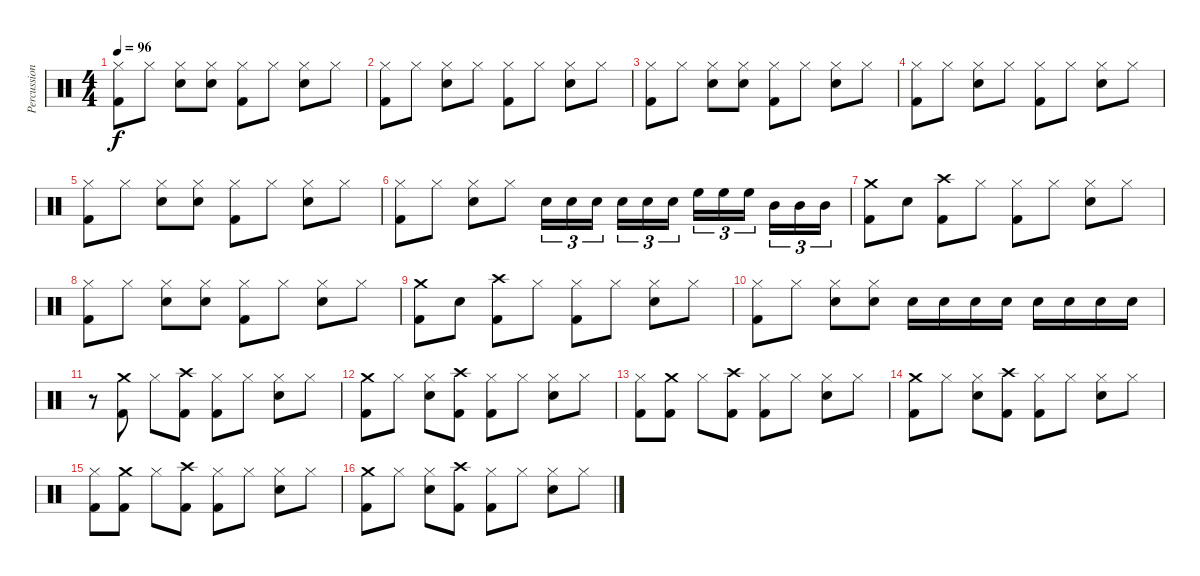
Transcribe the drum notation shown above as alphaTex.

\track ("Percussion" "Percussion") {instrument percussion}
\staff {score}
\articulation defaults
\ts (4 4)
\tempo 96
\clef neutral
\ks c
("Hi-Hat (closed)" "Kick (hit) 2").8{dy f} "Hi-Hat (closed)".8 ("Hi-Hat (closed)" "Snare (hit) 2").8 ("Hi-Hat (closed)" "Snare (hit) 2").8 ("Hi-Hat (closed)" "Kick (hit) 2").8 "Hi-Hat (closed)".8 ("Hi-Hat (closed)" "Snare (hit) 2").8 "Hi-Hat (closed)".8 |
("Hi-Hat (closed)" "Kick (hit) 2").8 "Hi-Hat (closed)".8 ("Hi-Hat (closed)" "Snare (hit) 2").8 "Hi-Hat (closed)".8 ("Hi-Hat (closed)" "Kick (hit) 2").8 "Hi-Hat (closed)".8 ("Hi-Hat (closed)" "Snare (hit) 2").8 "Hi-Hat (closed)".8 |
("Hi-Hat (closed)" "Kick (hit) 2").8 "Hi-Hat (closed)".8 ("Hi-Hat (closed)" "Snare (hit) 2").8 ("Hi-Hat (closed)" "Snare (hit) 2").8 ("Hi-Hat (closed)" "Kick (hit) 2").8 "Hi-Hat (closed)".8 ("Hi-Hat (closed)" "Snare (hit) 2").8 "Hi-Hat (closed)".8 |
("Hi-Hat (closed)" "Kick (hit) 2").8 "Hi-Hat (closed)".8 ("Hi-Hat (closed)" "Snare (hit) 2").8 "Hi-Hat (closed)".8 ("Hi-Hat (closed)" "Kick (hit) 2").8 "Hi-Hat (closed)".8 ("Hi-Hat (closed)" "Snare (hit) 2").8 "Hi-Hat (closed)".8 |
("Hi-Hat (closed)" "Kick (hit) 2").8 "Hi-Hat (closed)".8 ("Hi-Hat (closed)" "Snare (hit) 2").8 ("Hi-Hat (closed)" "Snare (hit) 2").8 ("Hi-Hat (closed)" "Kick (hit) 2").8 "Hi-Hat (closed)".8 ("Hi-Hat (closed)" "Snare (hit) 2").8 "Hi-Hat (closed)".8 |
("Hi-Hat (closed)" "Kick (hit) 2").8 "Hi-Hat (closed)".8 ("Hi-Hat (closed)" "Snare (hit) 2").8 "Hi-Hat (closed)".8 "Snare (hit) 2".16{tu (3 2)} "Snare (hit) 2".16{tu (3 2)} "Snare (hit) 2".16{tu (3 2) beam splitsecondary} "Snare (hit) 2".16{tu (3 2)} "Snare (hit) 2".16{tu (3 2)} "Snare (hit) 2".16{tu (3 2)} "High Floor Tom (hit)".16{tu (3 2)} "High Floor Tom (hit)".16{tu (3 2)} "High Floor Tom (hit)".16{tu (3 2) beam splitsecondary} "Mid Tom (hit)".16{tu (3 2)} "Mid Tom (hit)".16{tu (3 2)} "Mid Tom (hit)".16{tu (3 2)} |
("Crash medium (hit)" "Kick (hit) 2").8 "Snare (hit) 2".8 ("Crash high (hit)" "Kick (hit) 2").8 "Hi-Hat (closed)".8 ("Hi-Hat (closed)" "Kick (hit) 2").8 "Hi-Hat (closed)".8 ("Hi-Hat (closed)" "Snare (hit) 2").8 "Hi-Hat (closed)".8 |
("Hi-Hat (closed)" "Kick (hit) 2").8 "Hi-Hat (closed)".8 ("Hi-Hat (closed)" "Snare (hit) 2").8 ("Hi-Hat (closed)" "Snare (hit) 2").8 ("Hi-Hat (closed)" "Kick (hit) 2").8 "Hi-Hat (closed)".8 ("Hi-Hat (closed)" "Snare (hit) 2").8 "Hi-Hat (closed)".8 |
("Crash medium (hit)" "Kick (hit) 2").8 "Snare (hit) 2".8 ("Crash high (hit)" "Kick (hit) 2").8 "Hi-Hat (closed)".8 ("Hi-Hat (closed)" "Kick (hit) 2").8 "Hi-Hat (closed)".8 ("Hi-Hat (closed)" "Snare (hit) 2").8 "Hi-Hat (closed)".8 |
("Hi-Hat (closed)" "Kick (hit) 2").8 "Hi-Hat (closed)".8 ("Hi-Hat (closed)" "Snare (hit) 2").8 ("Hi-Hat (closed)" "Snare (hit) 2").8 "Snare (hit) 2".16 "Snare (hit) 2".16 "Snare (hit) 2".16 "Snare (hit) 2".16 "Snare (hit) 2".16 "Snare (hit) 2".16 "Snare (hit) 2".16 "Snare (hit) 2".16 |
r.8 ("Crash medium (hit)" "Kick (hit) 2").8 "Hi-Hat (closed)".8 ("Crash high (hit)" "Kick (hit) 2").8 ("Hi-Hat (closed)" "Kick (hit) 2").8 "Hi-Hat (closed)".8 ("Hi-Hat (closed)" "Snare (hit) 2").8 "Hi-Hat (closed)".8 |
("Crash medium (hit)" "Kick (hit) 2").8 "Hi-Hat (closed)".8 ("Hi-Hat (closed)" "Snare (hit) 2").8 ("Crash high (hit)" "Kick (hit) 2").8 ("Hi-Hat (closed)" "Kick (hit) 2").8 "Hi-Hat (closed)".8 ("Hi-Hat (closed)" "Snare (hit) 2").8 "Hi-Hat (closed)".8 |
("Kick (hit) 2" "Hi-Hat (closed)").8 ("Crash medium (hit)" "Kick (hit) 2").8 "Hi-Hat (closed)".8 ("Crash high (hit)" "Kick (hit) 2").8 ("Hi-Hat (closed)" "Kick (hit) 2").8 "Hi-Hat (closed)".8 ("Hi-Hat (closed)" "Snare (hit) 2").8 "Hi-Hat (closed)".8 |
("Crash medium (hit)" "Kick (hit) 2").8 "Hi-Hat (closed)".8 ("Hi-Hat (closed)" "Snare (hit) 2").8 ("Crash high (hit)" "Kick (hit) 2").8 ("Hi-Hat (closed)" "Kick (hit) 2").8 "Hi-Hat (closed)".8 ("Hi-Hat (closed)" "Snare (hit) 2").8 "Hi-Hat (closed)".8 |
("Kick (hit) 2" "Hi-Hat (closed)").8 ("Crash medium (hit)" "Kick (hit) 2").8 "Hi-Hat (closed)".8 ("Crash high (hit)" "Kick (hit) 2").8 ("Hi-Hat (closed)" "Kick (hit) 2").8 "Hi-Hat (closed)".8 ("Hi-Hat (closed)" "Snare (hit) 2").8 "Hi-Hat (closed)".8 |
("Crash medium (hit)" "Kick (hit) 2").8 "Hi-Hat (closed)".8 ("Hi-Hat (closed)" "Snare (hit) 2").8 ("Crash high (hit)" "Kick (hit) 2").8 ("Hi-Hat (closed)" "Kick (hit) 2").8 "Hi-Hat (closed)".8 ("Hi-Hat (closed)" "Snare (hit) 2").8 "Hi-Hat (closed)".8
